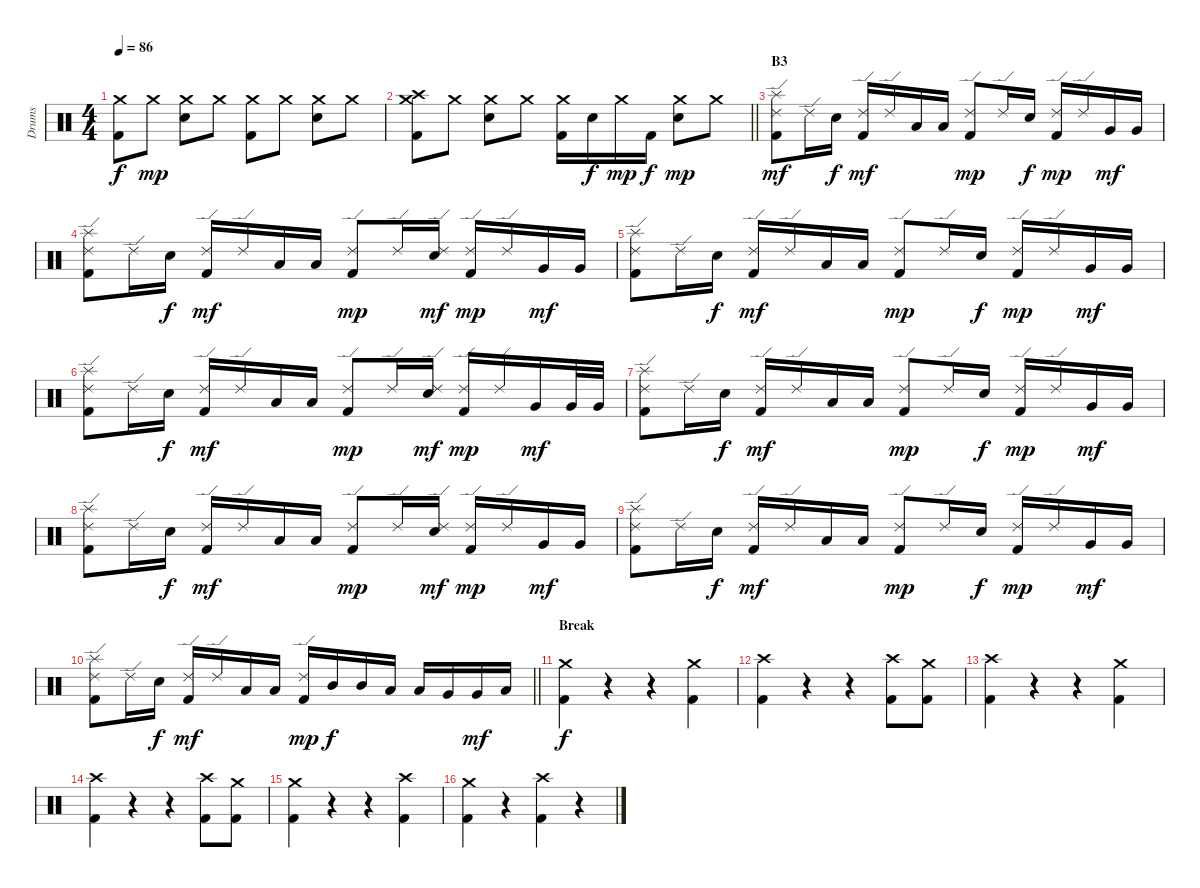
\track ("Drums" "Drums") {instrument percussion}
\staff {score}
\articulation defaults
\ts (4 4)
\tempo 86
\clef neutral
\ks c
("Crash medium (hit)" "Kick (hit) 2").8{dy f} "Crash medium (hit)".8{dy mp} ("Crash medium (hit)" "Electric Snare (hit)").8 "Crash medium (hit)".8 ("Crash medium (hit)" "Kick (hit) 2").8 "Crash medium (hit)".8 ("Crash medium (hit)" "Electric Snare (hit)").8 "Crash medium (hit)".8 |
\barLineRight lightlight
("Crash medium (hit)" "Crash high (hit)" "Kick (hit) 2").8 "Crash medium (hit)".8 ("Crash medium (hit)" "Electric Snare (hit)").8 "Crash medium (hit)".8 ("Crash medium (hit)" "Kick (hit) 2").16 "Electric Snare (hit)".16{dy f} "Crash medium (hit)".16{dy mp} "Kick (hit) 2".16{dy f} ("Crash medium (hit)" "Electric Snare (hit)").8{dy mp} "Crash medium (hit)".8 |
\section ("" "B3")
("Ride (edge) 2" "Splash (hit)" "Kick (hit) 2").8{dy mf} "Ride (edge) 2".16 "Electric Snare (hit)".16{dy f} ("Ride (edge) 2" "Kick (hit) 2").16{dy mf} "Ride (edge) 2".16 "Low Tom (hit)".16 "Low Tom (hit)".16 ("Ride (edge) 2" "Kick (hit) 2").8{dy mp} "Ride (edge) 2".16 "Electric Snare (hit)".16{dy f} ("Ride (edge) 2" "Kick (hit) 2").16{dy mp} "Ride (edge) 2".16 "Very Low Tom (hit)".16{dy mf} "Very Low Tom (hit)".16 |
("Ride (edge) 2" "Splash (hit)" "Kick (hit) 2").8 "Ride (edge) 2".16 "Electric Snare (hit)".16{dy f} ("Ride (edge) 2" "Kick (hit) 2").16{dy mf} "Ride (edge) 2".16 "Low Tom (hit)".16 "Low Tom (hit)".16 ("Ride (edge) 2" "Kick (hit) 2").8{dy mp} "Ride (edge) 2".16 ("Ride (edge) 2" "Electric Snare (hit)").16{dy mf} ("Ride (edge) 2" "Kick (hit) 2").16{dy mp} "Ride (edge) 2".16 "Very Low Tom (hit)".16{dy mf} "Very Low Tom (hit)".16 |
("Ride (edge) 2" "Splash (hit)" "Kick (hit) 2").8 "Ride (edge) 2".16 "Electric Snare (hit)".16{dy f} ("Ride (edge) 2" "Kick (hit) 2").16{dy mf} "Ride (edge) 2".16 "Low Tom (hit)".16 "Low Tom (hit)".16 ("Ride (edge) 2" "Kick (hit) 2").8{dy mp} "Ride (edge) 2".16 "Electric Snare (hit)".16{dy f} ("Ride (edge) 2" "Kick (hit) 2").16{dy mp} "Ride (edge) 2".16 "Very Low Tom (hit)".16{dy mf} "Very Low Tom (hit)".16 |
("Ride (edge) 2" "Splash (hit)" "Kick (hit) 2").8 "Ride (edge) 2".16 "Electric Snare (hit)".16{dy f} ("Ride (edge) 2" "Kick (hit) 2").16{dy mf} "Ride (edge) 2".16 "Low Tom (hit)".16 "Low Tom (hit)".16 ("Ride (edge) 2" "Kick (hit) 2").8{dy mp} "Ride (edge) 2".16 ("Ride (edge) 2" "Electric Snare (hit)").16{dy mf} ("Ride (edge) 2" "Kick (hit) 2").16{dy mp} "Ride (edge) 2".16 "Very Low Tom (hit)".16{dy mf} "Very Low Tom (hit)".32 "Very Low Tom (hit)".32 |
("Ride (edge) 2" "Splash (hit)" "Kick (hit) 2").8 "Ride (edge) 2".16 "Electric Snare (hit)".16{dy f} ("Ride (edge) 2" "Kick (hit) 2").16{dy mf} "Ride (edge) 2".16 "Low Tom (hit)".16 "Low Tom (hit)".16 ("Ride (edge) 2" "Kick (hit) 2").8{dy mp} "Ride (edge) 2".16 "Electric Snare (hit)".16{dy f} ("Ride (edge) 2" "Kick (hit) 2").16{dy mp} "Ride (edge) 2".16 "Very Low Tom (hit)".16{dy mf} "Very Low Tom (hit)".16 |
("Ride (edge) 2" "Splash (hit)" "Kick (hit) 2").8 "Ride (edge) 2".16 "Electric Snare (hit)".16{dy f} ("Ride (edge) 2" "Kick (hit) 2").16{dy mf} "Ride (edge) 2".16 "Low Tom (hit)".16 "Low Tom (hit)".16 ("Ride (edge) 2" "Kick (hit) 2").8{dy mp} "Ride (edge) 2".16 ("Ride (edge) 2" "Electric Snare (hit)").16{dy mf} ("Ride (edge) 2" "Kick (hit) 2").16{dy mp} "Ride (edge) 2".16 "Very Low Tom (hit)".16{dy mf} "Very Low Tom (hit)".16 |
("Ride (edge) 2" "Splash (hit)" "Kick (hit) 2").8 "Ride (edge) 2".16 "Electric Snare (hit)".16{dy f} ("Ride (edge) 2" "Kick (hit) 2").16{dy mf} "Ride (edge) 2".16 "Low Tom (hit)".16 "Low Tom (hit)".16 ("Ride (edge) 2" "Kick (hit) 2").8{dy mp} "Ride (edge) 2".16 "Electric Snare (hit)".16{dy f} ("Ride (edge) 2" "Kick (hit) 2").16{dy mp} "Ride (edge) 2".16 "Very Low Tom (hit)".16{dy mf} "Very Low Tom (hit)".16 |
\barLineRight lightlight
("Ride (edge) 2" "Splash (hit)" "Kick (hit) 2").8 "Ride (edge) 2".16 "Electric Snare (hit)".16{dy f} ("Ride (edge) 2" "Kick (hit) 2").16{dy mf} "Ride (edge) 2".16 "Low Tom (hit)".16 "Low Tom (hit)".16 ("Ride (edge) 2" "Kick (hit) 2").16{dy mp} "Mid Tom (hit)".16{dy f} "Mid Tom (hit)".16 "Low Tom (hit)".16 "Low Tom (hit)".16 "Very Low Tom (hit)".16 "Very Low Tom (hit)".16{dy mf} "Low Floor Tom (hit)".16 |
\section ("" "Break")
("Crash medium (hit)" "Kick (hit) 2").4{dy f} r.4 r.4 ("Crash medium (hit)" "Kick (hit) 2").4 |
("Crash high (hit)" "Kick (hit) 2").4 r.4 r.4 ("Crash high (hit)" "Kick (hit) 2").8 ("Crash medium (hit)" "Kick (hit) 2").8 |
("Crash high (hit)" "Kick (hit) 2").4 r.4 r.4 ("Crash medium (hit)" "Kick (hit) 2").4 |
("Crash high (hit)" "Kick (hit) 2").4 r.4 r.4 ("Crash high (hit)" "Kick (hit) 2").8 ("Crash medium (hit)" "Kick (hit) 2").8 |
("Crash medium (hit)" "Kick (hit) 2").4 r.4 r.4 ("Crash high (hit)" "Kick (hit) 2").4 |
("Crash medium (hit)" "Kick (hit) 2").4 r.4 ("Crash high (hit)" "Kick (hit) 2").4 r.4
